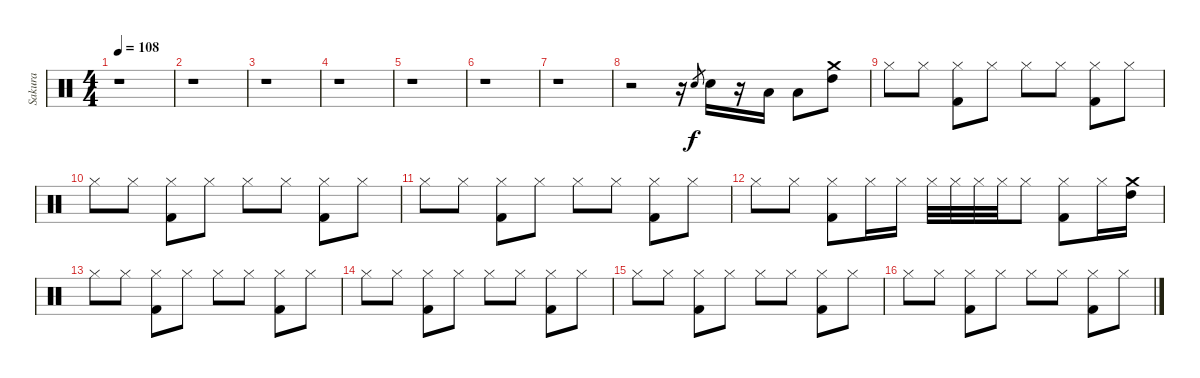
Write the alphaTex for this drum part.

\track ("Sakura" "Sakura") {instrument percussion}
\staff {score}
\articulation defaults
\ts (4 4)
\tempo 108
\clef neutral
\ks c
r.1{dy f} |
r.1 |
r.1 |
r.1 |
r.1 |
r.1 |
r.1 |
r.2 r.16 "Electric Snare (hit)".8{gr} "Electric Snare (hit)".16 r.16 "Low Tom (hit)".16 "Low Tom (hit)".8 ("Crash medium (hit)" "High Tom (hit)").8 |
"Hi-Hat (closed)".8 "Hi-Hat (closed)".8 ("Hi-Hat (closed)" "Kick (hit) 2").8 "Hi-Hat (closed)".8 "Hi-Hat (closed)".8 "Hi-Hat (closed)".8 ("Hi-Hat (closed)" "Kick (hit) 2").8 "Hi-Hat (closed)".8 |
"Hi-Hat (closed)".8 "Hi-Hat (closed)".8 ("Hi-Hat (closed)" "Kick (hit) 2").8 "Hi-Hat (closed)".8 "Hi-Hat (closed)".8 "Hi-Hat (closed)".8 ("Hi-Hat (closed)" "Kick (hit) 2").8 "Hi-Hat (closed)".8 |
"Hi-Hat (closed)".8 "Hi-Hat (closed)".8 ("Hi-Hat (closed)" "Kick (hit) 2").8 "Hi-Hat (closed)".8 "Hi-Hat (closed)".8 "Hi-Hat (closed)".8 ("Hi-Hat (closed)" "Kick (hit) 2").8 "Hi-Hat (closed)".8 |
"Hi-Hat (closed)".8 "Hi-Hat (closed)".8 ("Hi-Hat (closed)" "Kick (hit) 2").8 "Hi-Hat (closed)".16 "Hi-Hat (closed)".16 "Hi-Hat (closed)".32 "Hi-Hat (closed)".32 "Hi-Hat (closed)".32 "Hi-Hat (closed)".32 "Hi-Hat (closed)".8 ("Hi-Hat (closed)" "Kick (hit) 2").8 "Hi-Hat (closed)".16 ("Crash medium (hit)" "High Tom (hit)").16 |
"Hi-Hat (closed)".8 "Hi-Hat (closed)".8 ("Hi-Hat (closed)" "Kick (hit) 2").8 "Hi-Hat (closed)".8 "Hi-Hat (closed)".8 "Hi-Hat (closed)".8 ("Hi-Hat (closed)" "Kick (hit) 2").8 "Hi-Hat (closed)".8 |
"Hi-Hat (closed)".8 "Hi-Hat (closed)".8 ("Hi-Hat (closed)" "Kick (hit) 2").8 "Hi-Hat (closed)".8 "Hi-Hat (closed)".8 "Hi-Hat (closed)".8 ("Hi-Hat (closed)" "Kick (hit) 2").8 "Hi-Hat (closed)".8 |
"Hi-Hat (closed)".8 "Hi-Hat (closed)".8 ("Hi-Hat (closed)" "Kick (hit) 2").8 "Hi-Hat (closed)".8 "Hi-Hat (closed)".8 "Hi-Hat (closed)".8 ("Hi-Hat (closed)" "Kick (hit) 2").8 "Hi-Hat (closed)".8 |
"Hi-Hat (closed)".8 "Hi-Hat (closed)".8 ("Hi-Hat (closed)" "Kick (hit) 2").8 "Hi-Hat (closed)".8 "Hi-Hat (closed)".8 "Hi-Hat (closed)".8 ("Hi-Hat (closed)" "Kick (hit) 2").8 "Hi-Hat (closed)".8
